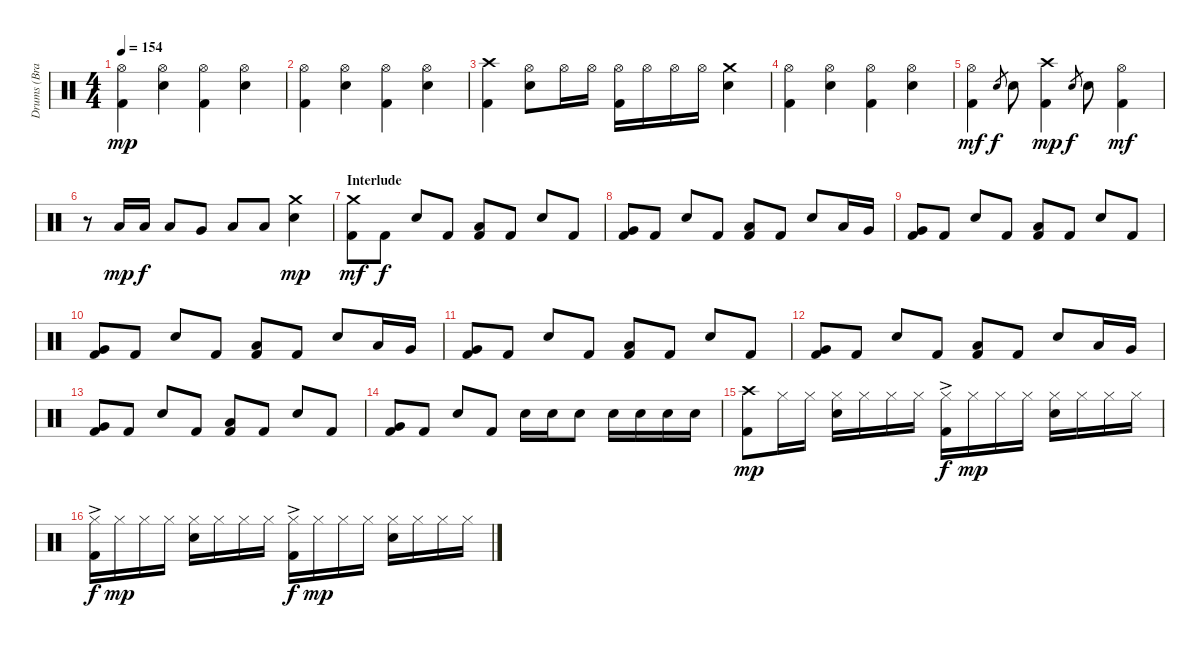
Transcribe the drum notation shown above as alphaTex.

\track ("Drums (Brandon Saller)" "Drums (Bra") {instrument percussion}
\staff {score}
\articulation defaults
\ts (4 4)
\tempo 154
\clef neutral
\ks c
("Hi-Hat (open)" "Kick (hit) 2").4{dy mp} ("Hi-Hat (open)" "Electric Snare (hit)").4 ("Hi-Hat (open)" "Kick (hit) 2").4 ("Hi-Hat (open)" "Electric Snare (hit)").4 |
("Hi-Hat (open)" "Kick (hit) 2").4 ("Hi-Hat (open)" "Electric Snare (hit)").4 ("Hi-Hat (open)" "Kick (hit) 2").4 ("Hi-Hat (open)" "Electric Snare (hit)").4 |
("Crash high (hit)" "Kick (hit) 2").4 ("Hi-Hat (open)" "Electric Snare (hit)").8 "Hi-Hat (open)".16 "Hi-Hat (open)".16 ("Hi-Hat (open)" "Kick (hit) 2").16 "Hi-Hat (open)".16 "Hi-Hat (open)".16 "Hi-Hat (open)".16 ("Crash medium (hit)" "Electric Snare (hit)").4 |
("Hi-Hat (open)" "Kick (hit) 2").4 ("Hi-Hat (open)" "Electric Snare (hit)").4 ("Hi-Hat (open)" "Kick (hit) 2").4 ("Hi-Hat (open)" "Electric Snare (hit)").4 |
("Hi-Hat (open)" "Kick (hit) 2").4{dy mf} "Electric Snare (hit)".8{gr dy f} "Electric Snare (hit)".8 ("Crash high (hit)" "Kick (hit) 2").4{dy mp} "Electric Snare (hit)".8{gr dy f} "Electric Snare (hit)".8 ("Hi-Hat (open)" "Kick (hit) 2").4{dy mf} |
r.8 "Low Tom (hit)".16{dy mp} "Low Tom (hit)".16{dy f} "Low Tom (hit)".8 "Very Low Tom (hit)".8 "Low Floor Tom (hit)".8 "Low Floor Tom (hit)".8 ("Crash medium (hit)" "Electric Snare (hit)").4{dy mp} |
\section ("" "Interlude")
("Crash medium (hit)" "Kick (hit) 2").8{dy mf} "Kick (hit) 2".8{dy f} "Electric Snare (hit)".8 "Kick (hit) 2".8 ("Low Tom (hit)" "Kick (hit) 2").8{bu 120} "Kick (hit) 2".8 "Electric Snare (hit)".8 "Kick (hit) 2".8 |
("Very Low Tom (hit)" "Kick (hit) 2").8 "Kick (hit) 2".8 "Electric Snare (hit)".8 "Kick (hit) 2".8 ("Low Tom (hit)" "Kick (hit) 2").8{bu 120} "Kick (hit) 2".8 "Electric Snare (hit)".8 "Low Tom (hit)".16 "Very Low Tom (hit)".16 |
("Very Low Tom (hit)" "Kick (hit) 2").8 "Kick (hit) 2".8 "Electric Snare (hit)".8 "Kick (hit) 2".8 ("Low Tom (hit)" "Kick (hit) 2").8{bu 120} "Kick (hit) 2".8 "Electric Snare (hit)".8 "Kick (hit) 2".8 |
("Very Low Tom (hit)" "Kick (hit) 2").8 "Kick (hit) 2".8 "Electric Snare (hit)".8 "Kick (hit) 2".8 ("Low Tom (hit)" "Kick (hit) 2").8{bu 120} "Kick (hit) 2".8 "Electric Snare (hit)".8 "Low Tom (hit)".16 "Very Low Tom (hit)".16 |
("Very Low Tom (hit)" "Kick (hit) 2").8 "Kick (hit) 2".8 "Electric Snare (hit)".8 "Kick (hit) 2".8 ("Low Tom (hit)" "Kick (hit) 2").8{bu 120} "Kick (hit) 2".8 "Electric Snare (hit)".8 "Kick (hit) 2".8 |
("Very Low Tom (hit)" "Kick (hit) 2").8 "Kick (hit) 2".8 "Electric Snare (hit)".8 "Kick (hit) 2".8 ("Low Tom (hit)" "Kick (hit) 2").8{bu 120} "Kick (hit) 2".8 "Electric Snare (hit)".8 "Low Tom (hit)".16 "Very Low Tom (hit)".16 |
("Very Low Tom (hit)" "Kick (hit) 2").8 "Kick (hit) 2".8 "Electric Snare (hit)".8 "Kick (hit) 2".8 ("Low Tom (hit)" "Kick (hit) 2").8{bu 120} "Kick (hit) 2".8 "Electric Snare (hit)".8 "Kick (hit) 2".8 |
("Very Low Tom (hit)" "Kick (hit) 2").8 "Kick (hit) 2".8 "Electric Snare (hit)".8 "Kick (hit) 2".8 "Electric Snare (hit)".16 "Electric Snare (hit)".16 "Electric Snare (hit)".8 "Electric Snare (hit)".16 "Electric Snare (hit)".16 "Electric Snare (hit)".16 "Electric Snare (hit)".16 |
("Crash high (hit)" "Kick (hit) 2").8{dy mp} "Hi-Hat (closed)".16 "Hi-Hat (closed)".16 ("Hi-Hat (closed)" "Electric Snare (hit)").16 "Hi-Hat (closed)".16 "Hi-Hat (closed)".16 "Hi-Hat (closed)".16 ("Hi-Hat (closed)"{ac} "Kick (hit) 2").16{dy f} "Hi-Hat (closed)".16{dy mp} "Hi-Hat (closed)".16 "Hi-Hat (closed)".16 ("Hi-Hat (closed)" "Electric Snare (hit)").16 "Hi-Hat (closed)".16 "Hi-Hat (closed)".16 "Hi-Hat (closed)".16 |
("Hi-Hat (closed)"{ac} "Kick (hit) 2").16{dy f} "Hi-Hat (closed)".16{dy mp} "Hi-Hat (closed)".16 "Hi-Hat (closed)".16 ("Hi-Hat (closed)" "Electric Snare (hit)").16 "Hi-Hat (closed)".16 "Hi-Hat (closed)".16 "Hi-Hat (closed)".16 ("Hi-Hat (closed)"{ac} "Kick (hit) 2").16{dy f} "Hi-Hat (closed)".16{dy mp} "Hi-Hat (closed)".16 "Hi-Hat (closed)".16 ("Hi-Hat (closed)" "Electric Snare (hit)").16 "Hi-Hat (closed)".16 "Hi-Hat (closed)".16 "Hi-Hat (closed)".16
